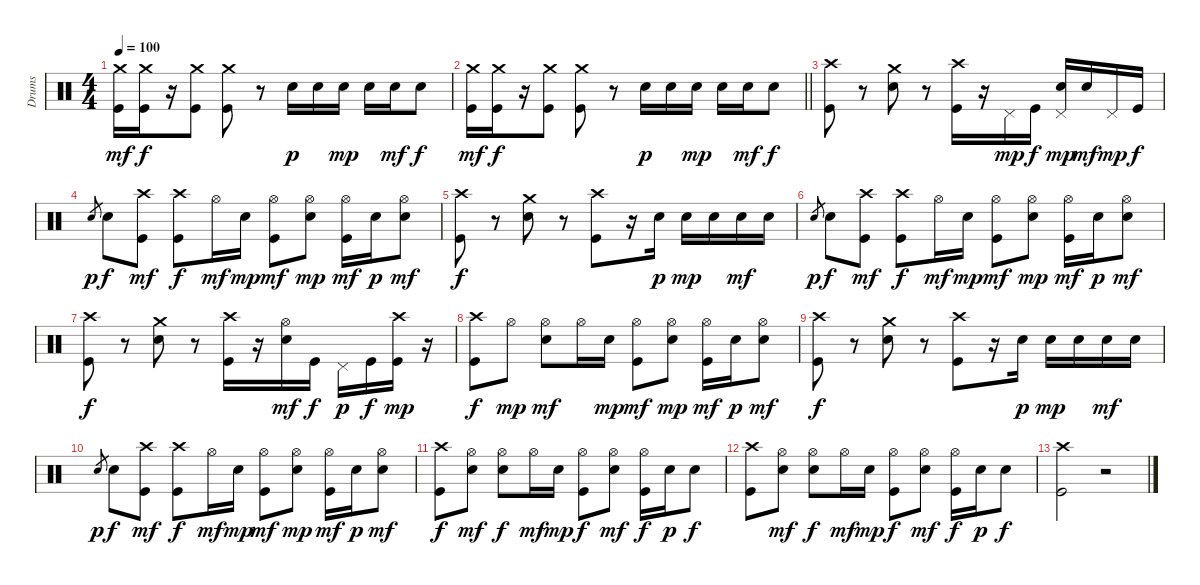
\track ("Drums" "Drums") {instrument percussion}
\staff {score}
\articulation defaults
\ts (4 4)
\tempo 100
\clef neutral
\ks c
("Crash medium (hit)" "Kick (hit)").16{dy mf} ("Crash medium (hit)" "Kick (hit)").16{dy f} r.16 ("Crash medium (hit)" "Kick (hit)").8 ("Crash medium (hit)" "Kick (hit)").8 r.8 "Snare (hit) 2".16{dy p} "Snare (hit) 2".16 "Snare (hit) 2".16{dy mp} "Snare (hit) 2".16 "Snare (hit) 2".16{dy mf} "Snare (hit) 2".8{dy f} |
\barLineRight lightlight
("Crash medium (hit)" "Kick (hit)").16{dy mf} ("Crash medium (hit)" "Kick (hit)").16{dy f} r.16 ("Crash medium (hit)" "Kick (hit)").8 ("Crash medium (hit)" "Kick (hit)").8 r.8 "Snare (hit) 2".16{dy p} "Snare (hit) 2".16 "Snare (hit) 2".16{dy mp} "Snare (hit) 2".16 "Snare (hit) 2".16{dy mf} "Snare (hit) 2".8{dy f} |
("Crash high (hit)" "Kick (hit)").8 r.8 ("Crash medium (hit)" "Snare (hit) 2").8 r.8 ("Crash high (hit)" "Kick (hit)").16 r.16 "Pedal Hi-Hat (hit)".16{dy mp} "Kick (hit)".16{dy f} ("Pedal Hi-Hat (hit)" "Snare (hit) 2").16{dy mp} "Snare (hit) 2".16{dy mf} "Pedal Hi-Hat (hit)".16{dy mp} "Kick (hit)".16{dy f} |
"Snare (hit) 2".8{gr dy p} "Snare (hit) 2".8{dy f} ("Crash high (hit)" "Kick (hit)").8{dy mf} ("Crash high (hit)" "Kick (hit)").8{dy f} "Hi-Hat (open)".16{dy mf} "Snare (hit) 2".16{dy mp} ("Hi-Hat (open)" "Kick (hit)").8{dy mf} ("Hi-Hat (open)" "Snare (hit) 2").8{dy mp} ("Hi-Hat (open)" "Kick (hit)").16{dy mf} "Snare (hit) 2".16{dy p} ("Hi-Hat (open)" "Snare (hit) 2").8{dy mf} |
("Crash high (hit)" "Kick (hit)").8{dy f} r.8 ("Crash medium (hit)" "Snare (hit) 2").8 r.8 ("Crash high (hit)" "Kick (hit)").8 r.16 "Snare (hit) 2".16{dy p} "Snare (hit) 2".16{dy mp} "Snare (hit) 2".16 "Snare (hit) 2".16{dy mf} "Snare (hit) 2".16 |
"Snare (hit) 2".8{gr dy p} "Snare (hit) 2".8{dy f} ("Crash high (hit)" "Kick (hit)").8{dy mf} ("Crash high (hit)" "Kick (hit)").8{dy f} "Hi-Hat (open)".16{dy mf} "Snare (hit) 2".16{dy mp} ("Hi-Hat (open)" "Kick (hit)").8{dy mf} ("Hi-Hat (open)" "Snare (hit) 2").8{dy mp} ("Hi-Hat (open)" "Kick (hit)").16{dy mf} "Snare (hit) 2".16{dy p} ("Hi-Hat (open)" "Snare (hit) 2").8{dy mf} |
("Crash high (hit)" "Kick (hit)").8{dy f} r.8 ("Crash medium (hit)" "Snare (hit) 2").8 r.8 ("Crash high (hit)" "Kick (hit)").16 r.16 ("Hi-Hat (open)" "Snare (hit) 2").16{dy mf} "Kick (hit)".16{dy f} "Pedal Hi-Hat (hit)".16{dy p} "Kick (hit)".16{dy f} ("Crash high (hit)" "Kick (hit)").16{dy mp} r.16 |
("Crash high (hit)" "Kick (hit)").8{dy f} "Hi-Hat (open)".8{dy mp} ("Hi-Hat (open)" "Snare (hit) 2").8{dy mf} "Hi-Hat (open)".16 "Snare (hit) 2".16{dy mp} ("Hi-Hat (open)" "Kick (hit)").8{dy mf} ("Hi-Hat (open)" "Snare (hit) 2").8{dy mp} ("Hi-Hat (open)" "Kick (hit)").16{dy mf} "Snare (hit) 2".16{dy p} ("Hi-Hat (open)" "Snare (hit) 2").8{dy mf} |
("Crash high (hit)" "Kick (hit)").8{dy f} r.8 ("Crash medium (hit)" "Snare (hit) 2").8 r.8 ("Crash high (hit)" "Kick (hit)").8 r.16 "Snare (hit) 2".16{dy p} "Snare (hit) 2".16{dy mp} "Snare (hit) 2".16 "Snare (hit) 2".16{dy mf} "Snare (hit) 2".16 |
"Snare (hit) 2".8{gr dy p} "Snare (hit) 2".8{dy f} ("Crash high (hit)" "Kick (hit)").8{dy mf} ("Crash high (hit)" "Kick (hit)").8{dy f} "Hi-Hat (open)".16{dy mf} "Snare (hit) 2".16{dy mp} ("Hi-Hat (open)" "Kick (hit)").8{dy mf} ("Hi-Hat (open)" "Snare (hit) 2").8{dy mp} ("Hi-Hat (open)" "Kick (hit)").16{dy mf} "Snare (hit) 2".16{dy p} ("Hi-Hat (open)" "Snare (hit) 2").8{dy mf} |
("Crash high (hit)" "Kick (hit)").8{dy f} ("Hi-Hat (open)" "Snare (hit) 2").8{dy mf} ("Hi-Hat (open)" "Snare (hit) 2").8{dy f} "Hi-Hat (open)".16{dy mf} "Snare (hit) 2".16{dy mp} ("Hi-Hat (open)" "Kick (hit)").8{dy f} ("Hi-Hat (open)" "Snare (hit) 2").8{dy mf} ("Hi-Hat (open)" "Kick (hit)").16{dy f} "Snare (hit) 2".16{dy p} "Snare (hit) 2".8{dy f} |
("Crash high (hit)" "Kick (hit)").8 ("Hi-Hat (open)" "Snare (hit) 2").8{dy mf} ("Hi-Hat (open)" "Snare (hit) 2").8{dy f} "Hi-Hat (open)".16{dy mf} "Snare (hit) 2".16{dy mp} ("Hi-Hat (open)" "Kick (hit)").8{dy f} ("Hi-Hat (open)" "Snare (hit) 2").8{dy mf} ("Hi-Hat (open)" "Kick (hit)").16{dy f} "Snare (hit) 2".16{dy p} "Snare (hit) 2".8{dy f} |
("Crash high (hit)" "Kick (hit)").2 r.2
